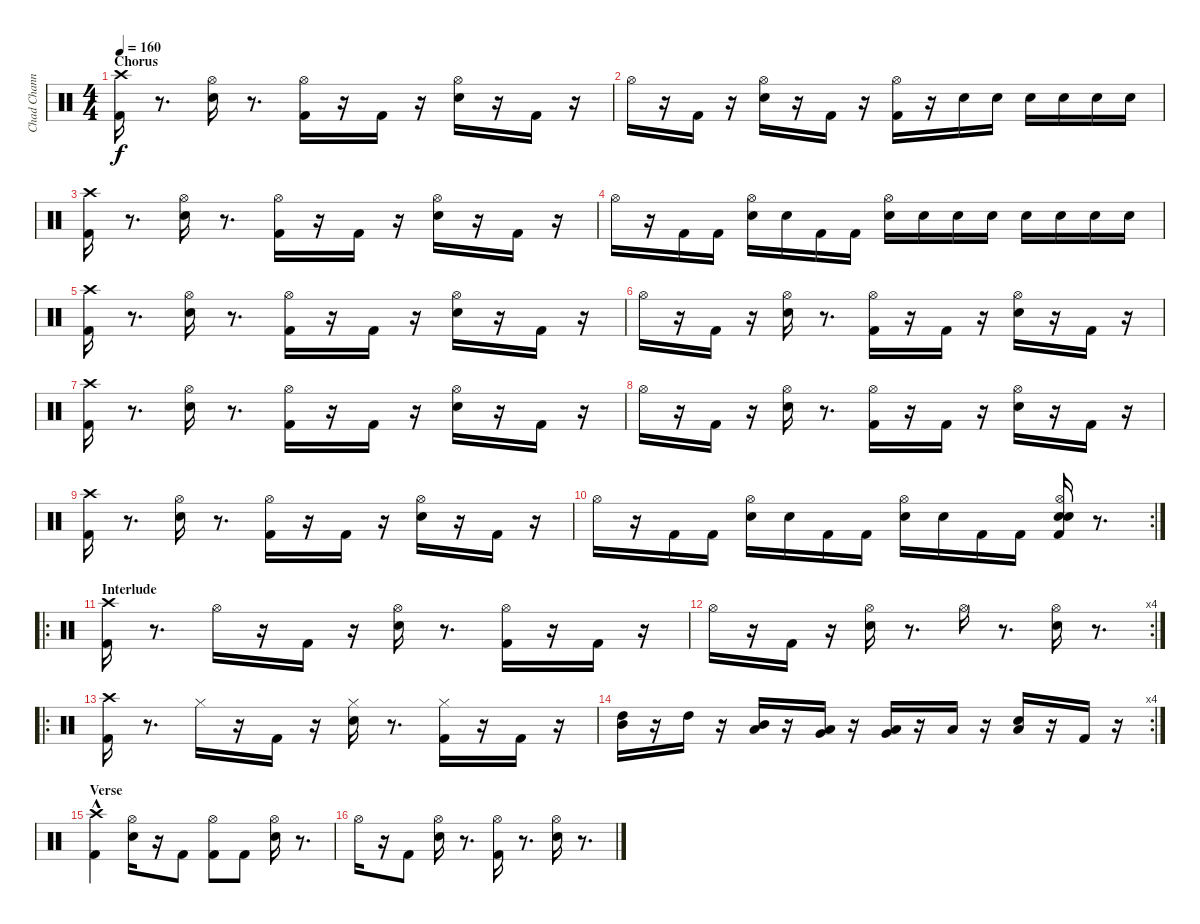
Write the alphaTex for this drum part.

\track ("Chad Channing" "Chad Chann") {instrument percussion}
\staff {score}
\articulation defaults
\ts (4 4)
\section ("" "Chorus")
\tempo 160
\clef neutral
\ks c
("Crash high (hit)" "Kick (hit) 2").16{dy f} r.8{d} ("Hi-Hat (open)" "Electric Snare (hit)").16 r.8{d} ("Hi-Hat (open)" "Kick (hit) 2").16 r.16 "Kick (hit) 2".16 r.16 ("Electric Snare (hit)" "Hi-Hat (open)").16 r.16 "Kick (hit) 2".16 r.16 |
"Hi-Hat (open)".16 r.16 "Kick (hit) 2".16 r.16 ("Hi-Hat (open)" "Electric Snare (hit)").16 r.16 "Kick (hit) 2".16 r.16 ("Kick (hit) 2" "Hi-Hat (open)").16 r.16 "Electric Snare (hit)".16 "Electric Snare (hit)".16 "Electric Snare (hit)".16 "Electric Snare (hit)".16 "Electric Snare (hit)".16 "Electric Snare (hit)".16 |
("Crash high (hit)" "Kick (hit) 2").16 r.8{d} ("Hi-Hat (open)" "Electric Snare (hit)").16 r.8{d} ("Hi-Hat (open)" "Kick (hit) 2").16 r.16 "Kick (hit) 2".16 r.16 ("Electric Snare (hit)" "Hi-Hat (open)").16 r.16 "Kick (hit) 2".16 r.16 |
"Hi-Hat (open)".16 r.16 "Kick (hit) 2".16 "Kick (hit) 2".16 ("Hi-Hat (open)" "Electric Snare (hit)").16 "Electric Snare (hit)".16 "Kick (hit) 2".16 "Kick (hit) 2".16 ("Hi-Hat (open)" "Electric Snare (hit)").16 "Electric Snare (hit)".16 "Electric Snare (hit)".16 "Electric Snare (hit)".16 "Electric Snare (hit)".16 "Electric Snare (hit)".16 "Electric Snare (hit)".16 "Electric Snare (hit)".16 |
("Crash high (hit)" "Kick (hit) 2").16 r.8{d} ("Hi-Hat (open)" "Electric Snare (hit)").16 r.8{d} ("Hi-Hat (open)" "Kick (hit) 2").16 r.16 "Kick (hit) 2".16 r.16 ("Electric Snare (hit)" "Hi-Hat (open)").16 r.16 "Kick (hit) 2".16 r.16 |
"Hi-Hat (open)".16 r.16 "Kick (hit) 2".16 r.16 ("Hi-Hat (open)" "Electric Snare (hit)").16 r.8{d} ("Kick (hit) 2" "Hi-Hat (open)").16 r.16 "Kick (hit) 2".16 r.16 ("Hi-Hat (open)" "Electric Snare (hit)").16 r.16 "Kick (hit) 2".16 r.16 |
("Crash high (hit)" "Kick (hit) 2").16 r.8{d} ("Hi-Hat (open)" "Electric Snare (hit)").16 r.8{d} ("Hi-Hat (open)" "Kick (hit) 2").16 r.16 "Kick (hit) 2".16 r.16 ("Electric Snare (hit)" "Hi-Hat (open)").16 r.16 "Kick (hit) 2".16 r.16 |
"Hi-Hat (open)".16 r.16 "Kick (hit) 2".16 r.16 ("Hi-Hat (open)" "Electric Snare (hit)").16 r.8{d} ("Kick (hit) 2" "Hi-Hat (open)").16 r.16 "Kick (hit) 2".16 r.16 ("Hi-Hat (open)" "Electric Snare (hit)").16 r.16 "Kick (hit) 2".16 r.16 |
("Crash high (hit)" "Kick (hit) 2").16 r.8{d} ("Hi-Hat (open)" "Electric Snare (hit)").16 r.8{d} ("Hi-Hat (open)" "Kick (hit) 2").16 r.16 "Kick (hit) 2".16 r.16 ("Electric Snare (hit)" "Hi-Hat (open)").16 r.16 "Kick (hit) 2".16 r.16 |
\rc 2 "Hi-Hat (open)".16
r.16 "Kick (hit) 2".16 "Kick (hit) 2".16 ("Hi-Hat (open)" "Electric Snare (hit)").16 "Electric Snare (hit)".16 "Kick (hit) 2".16 "Kick (hit) 2".16 ("Hi-Hat (open)" "Electric Snare (hit)").16 "Electric Snare (hit)".16 "Kick (hit) 2".16 "Kick (hit) 2".16 ("Hi-Hat (open)" "Electric Snare (hit)" "Kick (hit) 2" "Electric Snare (hit)").16 r.8{d} |
\ro
\section ("" "Interlude")
("Crash high (hit)" "Kick (hit) 2").16 r.8{d} "Hi-Hat (open)".16 r.16 "Kick (hit) 2".16 r.16 ("Electric Snare (hit)" "Hi-Hat (open)").16 r.8{d} ("Kick (hit) 2" "Hi-Hat (open)").16 r.16 "Kick (hit) 2".16 r.16 |
\rc 4 "Hi-Hat (open)".16
r.16 "Kick (hit) 2".16 r.16 ("Electric Snare (hit)" "Hi-Hat (open)").16 r.8{d} "Hi-Hat (open)".16 r.8{d} ("Hi-Hat (open)" "Electric Snare (hit)").16 r.8{d} |
\ro
("Crash high (hit)" "Kick (hit) 2").16 r.8{d} "Hi-Hat (closed)".16 r.16 "Kick (hit) 2".16 r.16 ("Electric Snare (hit)" "Hi-Hat (closed)").16 r.8{d} ("Kick (hit) 2" "Hi-Hat (closed)").16 r.16 "Kick (hit) 2".16 r.16 |
\rc 4
("High Tom (hit)" "Mid Tom (hit)").16 r.16 "High Tom (hit)".16 r.16 ("Low Tom (hit)" "Mid Tom (hit)").16 r.16 ("Very Low Tom (hit)" "Low Floor Tom (hit)").16 r.16 ("Low Floor Tom (hit)" "Very Low Tom (hit)").16 r.16 "Low Floor Tom (hit)".16 r.16 ("Low Floor Tom (hit)" "Electric Snare (hit)").16 r.16 "Kick (hit) 2".16 r.16 |
\section ("" "Verse")
("Crash high (hit)" "Kick (hit) 2"{hac}).4 ("Hi-Hat (open)" "Electric Snare (hit)").16 r.16 "Kick (hit) 2".8 ("Hi-Hat (open)" "Kick (hit) 2").8 "Kick (hit) 2".8 ("Hi-Hat (open)" "Electric Snare (hit)").16 r.8{d} |
"Hi-Hat (open)".16 r.16 "Kick (hit) 2".8 ("Hi-Hat (open)" "Electric Snare (hit)").16 r.8{d} ("Hi-Hat (open)" "Kick (hit) 2").16 r.8{d} ("Hi-Hat (open)" "Electric Snare (hit)").16 r.8{d}
